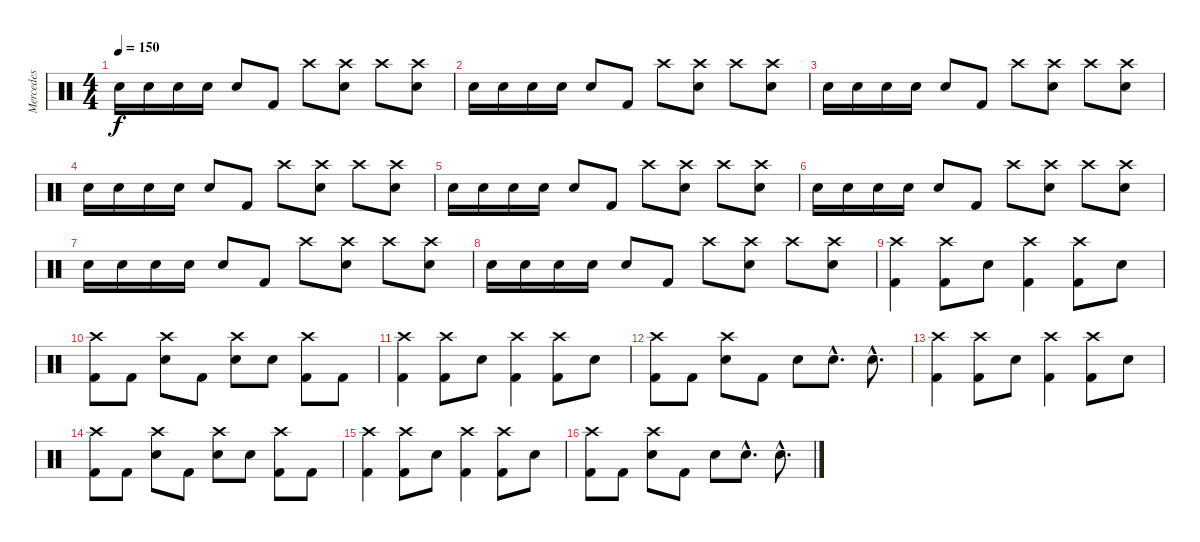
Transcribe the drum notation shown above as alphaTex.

\track ("Mercedes" "Mercedes") {instrument percussion}
\staff {score}
\articulation defaults
\ts (4 4)
\tempo 150
\clef neutral
\ks c "Snare (hit) 2".16{dy f} "Snare (hit) 2".16 "Snare (hit) 2".16 "Snare (hit) 2".16 "Snare (hit) 2".8 "Kick (hit) 2".8 "Crash high (hit)".8
("Crash high (hit)" "Snare (hit) 2").8 "Crash high (hit)".8 ("Crash high (hit)" "Snare (hit) 2").8 |
"Snare (hit) 2".16 "Snare (hit) 2".16 "Snare (hit) 2".16 "Snare (hit) 2".16 "Snare (hit) 2".8 "Kick (hit) 2".8 "Crash high (hit)".8 ("Crash high (hit)" "Snare (hit) 2").8 "Crash high (hit)".8 ("Crash high (hit)" "Snare (hit) 2").8 |
"Snare (hit) 2".16 "Snare (hit) 2".16 "Snare (hit) 2".16 "Snare (hit) 2".16 "Snare (hit) 2".8 "Kick (hit) 2".8 "Crash high (hit)".8 ("Crash high (hit)" "Snare (hit) 2").8 "Crash high (hit)".8 ("Crash high (hit)" "Snare (hit) 2").8 |
"Snare (hit) 2".16 "Snare (hit) 2".16 "Snare (hit) 2".16 "Snare (hit) 2".16 "Snare (hit) 2".8 "Kick (hit) 2".8 "Crash high (hit)".8 ("Crash high (hit)" "Snare (hit) 2").8 "Crash high (hit)".8 ("Crash high (hit)" "Snare (hit) 2").8 |
"Snare (hit) 2".16 "Snare (hit) 2".16 "Snare (hit) 2".16 "Snare (hit) 2".16 "Snare (hit) 2".8 "Kick (hit) 2".8 "Crash high (hit)".8 ("Crash high (hit)" "Snare (hit) 2").8 "Crash high (hit)".8 ("Crash high (hit)" "Snare (hit) 2").8 |
"Snare (hit) 2".16 "Snare (hit) 2".16 "Snare (hit) 2".16 "Snare (hit) 2".16 "Snare (hit) 2".8 "Kick (hit) 2".8 "Crash high (hit)".8 ("Crash high (hit)" "Snare (hit) 2").8 "Crash high (hit)".8 ("Crash high (hit)" "Snare (hit) 2").8 |
"Snare (hit) 2".16 "Snare (hit) 2".16 "Snare (hit) 2".16 "Snare (hit) 2".16 "Snare (hit) 2".8 "Kick (hit) 2".8 "Crash high (hit)".8 ("Crash high (hit)" "Snare (hit) 2").8 "Crash high (hit)".8 ("Crash high (hit)" "Snare (hit) 2").8 |
"Snare (hit) 2".16 "Snare (hit) 2".16 "Snare (hit) 2".16 "Snare (hit) 2".16 "Snare (hit) 2".8 "Kick (hit) 2".8 "Crash high (hit)".8 ("Crash high (hit)" "Snare (hit) 2").8 "Crash high (hit)".8 ("Crash high (hit)" "Snare (hit) 2").8 |
("Kick (hit) 2" "Crash high (hit)").4 ("Kick (hit) 2" "Crash high (hit)").8 "Snare (hit) 2".8 ("Kick (hit) 2" "Crash high (hit)").4 ("Kick (hit) 2" "Crash high (hit)").8 "Snare (hit) 2".8 |
("Kick (hit) 2" "Crash high (hit)").8 "Kick (hit) 2".8 ("Snare (hit) 2" "Crash high (hit)").8 "Kick (hit) 2".8 ("Snare (hit) 2" "Crash high (hit)").8 "Snare (hit) 2".8 ("Kick (hit) 2" "Crash high (hit)").8 "Kick (hit) 2".8 |
("Kick (hit) 2" "Crash high (hit)").4 ("Kick (hit) 2" "Crash high (hit)").8 "Snare (hit) 2".8 ("Kick (hit) 2" "Crash high (hit)").4 ("Kick (hit) 2" "Crash high (hit)").8 "Snare (hit) 2".8 |
("Kick (hit) 2" "Crash high (hit)").8 "Kick (hit) 2".8 ("Snare (hit) 2" "Crash high (hit)").8 "Kick (hit) 2".8 "Snare (hit) 2".8 "Snare (hit) 2"{hac}.8{d} "Snare (hit) 2"{hac}.8{d} |
("Kick (hit) 2" "Crash high (hit)").4 ("Kick (hit) 2" "Crash high (hit)").8 "Snare (hit) 2".8 ("Kick (hit) 2" "Crash high (hit)").4 ("Kick (hit) 2" "Crash high (hit)").8 "Snare (hit) 2".8 |
("Kick (hit) 2" "Crash high (hit)").8 "Kick (hit) 2".8 ("Snare (hit) 2" "Crash high (hit)").8 "Kick (hit) 2".8 ("Snare (hit) 2" "Crash high (hit)").8 "Snare (hit) 2".8 ("Kick (hit) 2" "Crash high (hit)").8 "Kick (hit) 2".8 |
("Kick (hit) 2" "Crash high (hit)").4 ("Kick (hit) 2" "Crash high (hit)").8 "Snare (hit) 2".8 ("Kick (hit) 2" "Crash high (hit)").4 ("Kick (hit) 2" "Crash high (hit)").8 "Snare (hit) 2".8 |
("Kick (hit) 2" "Crash high (hit)").8 "Kick (hit) 2".8 ("Snare (hit) 2" "Crash high (hit)").8 "Kick (hit) 2".8 "Snare (hit) 2".8 "Snare (hit) 2"{hac}.8{d} "Snare (hit) 2"{hac}.8{d}
